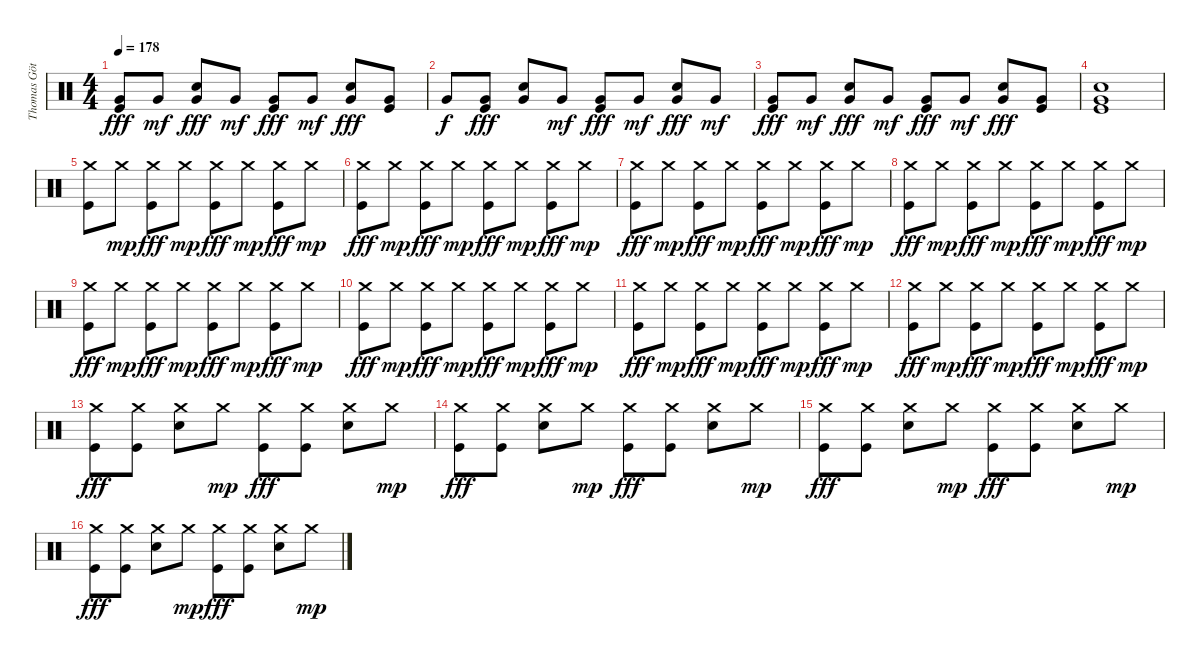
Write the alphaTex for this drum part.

\track ("Thomas Götz" "Thomas Göt") {instrument percussion}
\staff {score}
\articulation defaults
\ts (4 4)
\tempo 178
\clef neutral
\ks c
("Very Low Tom (hit)" "Kick (hit)").8{dy fff} "Very Low Tom (hit)".8{dy mf} ("Very Low Tom (hit)" "Electric Snare (hit)").8{dy fff} "Very Low Tom (hit)".8{dy mf} ("Very Low Tom (hit)" "Kick (hit)").8{dy fff} "Very Low Tom (hit)".8{dy mf} ("Very Low Tom (hit)" "Electric Snare (hit)").8{dy fff} ("Very Low Tom (hit)" "Kick (hit)").8 |
"Very Low Tom (hit)".8{dy f} ("Very Low Tom (hit)" "Kick (hit)").8{dy fff} ("Very Low Tom (hit)" "Electric Snare (hit)").8 "Very Low Tom (hit)".8{dy mf} ("Very Low Tom (hit)" "Kick (hit)").8{dy fff} "Very Low Tom (hit)".8{dy mf} ("Very Low Tom (hit)" "Electric Snare (hit)").8{dy fff} "Very Low Tom (hit)".8{dy mf} |
("Very Low Tom (hit)" "Kick (hit)").8{dy fff} "Very Low Tom (hit)".8{dy mf} ("Very Low Tom (hit)" "Electric Snare (hit)").8{dy fff} "Very Low Tom (hit)".8{dy mf} ("Very Low Tom (hit)" "Kick (hit)").8{dy fff} "Very Low Tom (hit)".8{dy mf} ("Very Low Tom (hit)" "Electric Snare (hit)").8{dy fff} ("Very Low Tom (hit)" "Kick (hit)").8 |
("Very Low Tom (hit)" "Electric Snare (hit)" "Kick (hit)").1 |
("Crash medium (hit)" "Kick (hit)").8 "Crash medium (hit)".8{dy mp} ("Crash medium (hit)" "Kick (hit)").8{dy fff} "Crash medium (hit)".8{dy mp} ("Crash medium (hit)" "Kick (hit)").8{dy fff} "Crash medium (hit)".8{dy mp} ("Crash medium (hit)" "Kick (hit)").8{dy fff} "Crash medium (hit)".8{dy mp} |
("Crash medium (hit)" "Kick (hit)").8{dy fff} "Crash medium (hit)".8{dy mp} ("Crash medium (hit)" "Kick (hit)").8{dy fff} "Crash medium (hit)".8{dy mp} ("Crash medium (hit)" "Kick (hit)").8{dy fff} "Crash medium (hit)".8{dy mp} ("Crash medium (hit)" "Kick (hit)").8{dy fff} "Crash medium (hit)".8{dy mp} |
("Crash medium (hit)" "Kick (hit)").8{dy fff} "Crash medium (hit)".8{dy mp} ("Crash medium (hit)" "Kick (hit)").8{dy fff} "Crash medium (hit)".8{dy mp} ("Crash medium (hit)" "Kick (hit)").8{dy fff} "Crash medium (hit)".8{dy mp} ("Crash medium (hit)" "Kick (hit)").8{dy fff} "Crash medium (hit)".8{dy mp} |
("Crash medium (hit)" "Kick (hit)").8{dy fff} "Crash medium (hit)".8{dy mp} ("Crash medium (hit)" "Kick (hit)").8{dy fff} "Crash medium (hit)".8{dy mp} ("Crash medium (hit)" "Kick (hit)").8{dy fff} "Crash medium (hit)".8{dy mp} ("Crash medium (hit)" "Kick (hit)").8{dy fff} "Crash medium (hit)".8{dy mp} |
("Crash medium (hit)" "Kick (hit)").8{dy fff} "Crash medium (hit)".8{dy mp} ("Crash medium (hit)" "Kick (hit)").8{dy fff} "Crash medium (hit)".8{dy mp} ("Crash medium (hit)" "Kick (hit)").8{dy fff} "Crash medium (hit)".8{dy mp} ("Crash medium (hit)" "Kick (hit)").8{dy fff} "Crash medium (hit)".8{dy mp} |
("Crash medium (hit)" "Kick (hit)").8{dy fff} "Crash medium (hit)".8{dy mp} ("Crash medium (hit)" "Kick (hit)").8{dy fff} "Crash medium (hit)".8{dy mp} ("Crash medium (hit)" "Kick (hit)").8{dy fff} "Crash medium (hit)".8{dy mp} ("Crash medium (hit)" "Kick (hit)").8{dy fff} "Crash medium (hit)".8{dy mp} |
("Crash medium (hit)" "Kick (hit)").8{dy fff} "Crash medium (hit)".8{dy mp} ("Crash medium (hit)" "Kick (hit)").8{dy fff} "Crash medium (hit)".8{dy mp} ("Crash medium (hit)" "Kick (hit)").8{dy fff} "Crash medium (hit)".8{dy mp} ("Crash medium (hit)" "Kick (hit)").8{dy fff} "Crash medium (hit)".8{dy mp} |
("Crash medium (hit)" "Kick (hit)").8{dy fff} "Crash medium (hit)".8{dy mp} ("Crash medium (hit)" "Kick (hit)").8{dy fff} "Crash medium (hit)".8{dy mp} ("Crash medium (hit)" "Kick (hit)").8{dy fff} "Crash medium (hit)".8{dy mp} ("Crash medium (hit)" "Kick (hit)").8{dy fff} "Crash medium (hit)".8{dy mp} |
("Crash medium (hit)" "Kick (hit)").8{dy fff} ("Crash medium (hit)" "Kick (hit)").8 ("Crash medium (hit)" "Electric Snare (hit)").8 "Crash medium (hit)".8{dy mp} ("Crash medium (hit)" "Kick (hit)").8{dy fff} ("Crash medium (hit)" "Kick (hit)").8 ("Crash medium (hit)" "Electric Snare (hit)").8 "Crash medium (hit)".8{dy mp} |
("Crash medium (hit)" "Kick (hit)").8{dy fff} ("Crash medium (hit)" "Kick (hit)").8 ("Crash medium (hit)" "Electric Snare (hit)").8 "Crash medium (hit)".8{dy mp} ("Crash medium (hit)" "Kick (hit)").8{dy fff} ("Crash medium (hit)" "Kick (hit)").8 ("Crash medium (hit)" "Electric Snare (hit)").8 "Crash medium (hit)".8{dy mp} |
("Crash medium (hit)" "Kick (hit)").8{dy fff} ("Crash medium (hit)" "Kick (hit)").8 ("Crash medium (hit)" "Electric Snare (hit)").8 "Crash medium (hit)".8{dy mp} ("Crash medium (hit)" "Kick (hit)").8{dy fff} ("Crash medium (hit)" "Kick (hit)").8 ("Crash medium (hit)" "Electric Snare (hit)").8 "Crash medium (hit)".8{dy mp} |
("Crash medium (hit)" "Kick (hit)").8{dy fff} ("Crash medium (hit)" "Kick (hit)").8 ("Crash medium (hit)" "Electric Snare (hit)").8 "Crash medium (hit)".8{dy mp} ("Crash medium (hit)" "Kick (hit)").8{dy fff} ("Crash medium (hit)" "Kick (hit)").8 ("Crash medium (hit)" "Electric Snare (hit)").8 "Crash medium (hit)".8{dy mp}
